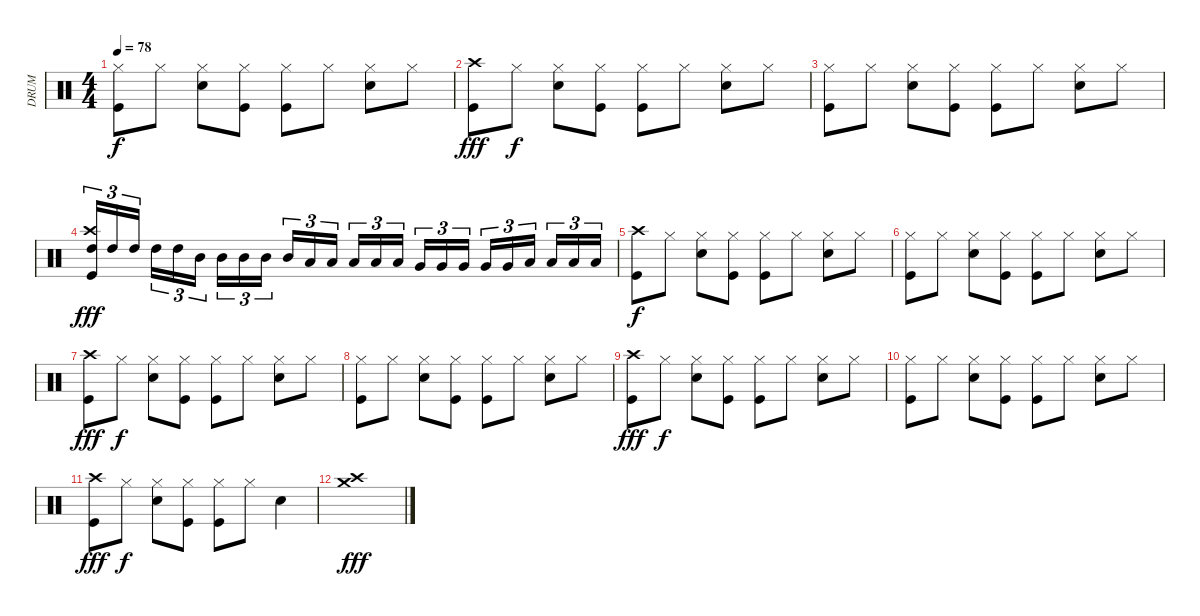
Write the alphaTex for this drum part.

\track ("DRUM" "DRUM") {instrument percussion}
\staff {score}
\articulation defaults
\ts (4 4)
\tempo 78
\clef neutral
\ks c
("Hi-Hat (closed)" "Kick (hit)").8{dy f} "Hi-Hat (closed)".8 ("Hi-Hat (closed)" "Electric Snare (hit)").8 ("Hi-Hat (closed)" "Kick (hit)").8 ("Hi-Hat (closed)" "Kick (hit)").8 "Hi-Hat (closed)".8 ("Hi-Hat (closed)" "Electric Snare (hit)").8 "Hi-Hat (closed)".8 |
("Crash high (hit)" "Kick (hit)").8{dy fff} "Hi-Hat (closed)".8{dy f} ("Hi-Hat (closed)" "Electric Snare (hit)").8 ("Hi-Hat (closed)" "Kick (hit)").8 ("Hi-Hat (closed)" "Kick (hit)").8 "Hi-Hat (closed)".8 ("Hi-Hat (closed)" "Electric Snare (hit)").8 "Hi-Hat (closed)".8 |
("Hi-Hat (closed)" "Kick (hit)").8 "Hi-Hat (closed)".8 ("Hi-Hat (closed)" "Electric Snare (hit)").8 ("Hi-Hat (closed)" "Kick (hit)").8 ("Hi-Hat (closed)" "Kick (hit)").8 "Hi-Hat (closed)".8 ("Hi-Hat (closed)" "Electric Snare (hit)").8 "Hi-Hat (closed)".8 |
("Crash high (hit)" "High Tom (hit)" "Kick (hit)").16{tu (3 2) dy fff} "High Tom (hit)".16{tu (3 2)} "High Tom (hit)".16{tu (3 2)} "High Tom (hit)".16{tu (3 2)} "High Tom (hit)".16{tu (3 2)} "Mid Tom (hit)".16{tu (3 2)} "Mid Tom (hit)".16{tu (3 2)} "Mid Tom (hit)".16{tu (3 2)} "Mid Tom (hit)".16{tu (3 2)} "Mid Tom (hit)".16{tu (3 2)} "Low Tom (hit)".16{tu (3 2)} "Low Tom (hit)".16{tu (3 2)} "Low Tom (hit)".16{tu (3 2)} "Low Tom (hit)".16{tu (3 2)} "Low Tom (hit)".16{tu (3 2)} "Very Low Tom (hit)".16{tu (3 2)} "Very Low Tom (hit)".16{tu (3 2)} "Very Low Tom (hit)".16{tu (3 2)} "Very Low Tom (hit)".16{tu (3 2)} "Very Low Tom (hit)".16{tu (3 2)} "Low Floor Tom (hit)".16{tu (3 2)} "Low Floor Tom (hit)".16{tu (3 2)} "Low Floor Tom (hit)".16{tu (3 2)} "Low Floor Tom (hit)".16{tu (3 2)} |
("Crash high (hit)" "Kick (hit)").8{dy f} "Hi-Hat (closed)".8 ("Hi-Hat (closed)" "Electric Snare (hit)").8 ("Hi-Hat (closed)" "Kick (hit)").8 ("Hi-Hat (closed)" "Kick (hit)").8 "Hi-Hat (closed)".8 ("Hi-Hat (closed)" "Electric Snare (hit)").8 "Hi-Hat (closed)".8 |
("Hi-Hat (closed)" "Kick (hit)").8 "Hi-Hat (closed)".8 ("Hi-Hat (closed)" "Electric Snare (hit)").8 ("Hi-Hat (closed)" "Kick (hit)").8 ("Hi-Hat (closed)" "Kick (hit)").8 "Hi-Hat (closed)".8 ("Hi-Hat (closed)" "Electric Snare (hit)").8 "Hi-Hat (closed)".8 |
("Crash high (hit)" "Kick (hit)").8{dy fff} "Hi-Hat (closed)".8{dy f} ("Hi-Hat (closed)" "Electric Snare (hit)").8 ("Hi-Hat (closed)" "Kick (hit)").8 ("Hi-Hat (closed)" "Kick (hit)").8 "Hi-Hat (closed)".8 ("Hi-Hat (closed)" "Electric Snare (hit)").8 "Hi-Hat (closed)".8 |
("Hi-Hat (closed)" "Kick (hit)").8 "Hi-Hat (closed)".8 ("Hi-Hat (closed)" "Electric Snare (hit)").8 ("Hi-Hat (closed)" "Kick (hit)").8 ("Hi-Hat (closed)" "Kick (hit)").8 "Hi-Hat (closed)".8 ("Hi-Hat (closed)" "Electric Snare (hit)").8 "Hi-Hat (closed)".8 |
("Crash high (hit)" "Kick (hit)").8{dy fff} "Hi-Hat (closed)".8{dy f} ("Hi-Hat (closed)" "Electric Snare (hit)").8 ("Hi-Hat (closed)" "Kick (hit)").8 ("Hi-Hat (closed)" "Kick (hit)").8 "Hi-Hat (closed)".8 ("Hi-Hat (closed)" "Electric Snare (hit)").8 "Hi-Hat (closed)".8 |
("Hi-Hat (closed)" "Kick (hit)").8 "Hi-Hat (closed)".8 ("Hi-Hat (closed)" "Electric Snare (hit)").8 ("Hi-Hat (closed)" "Kick (hit)").8 ("Hi-Hat (closed)" "Kick (hit)").8 "Hi-Hat (closed)".8 ("Hi-Hat (closed)" "Electric Snare (hit)").8 "Hi-Hat (closed)".8 |
("Crash high (hit)" "Kick (hit)").8{dy fff} "Hi-Hat (closed)".8{dy f} ("Hi-Hat (closed)" "Electric Snare (hit)").8 ("Hi-Hat (closed)" "Kick (hit)").8 ("Hi-Hat (closed)" "Kick (hit)").8 "Hi-Hat (closed)".8 "Electric Snare (hit)".4 |
("Crash medium (hit)" "Crash high (hit)").1{dy fff}
